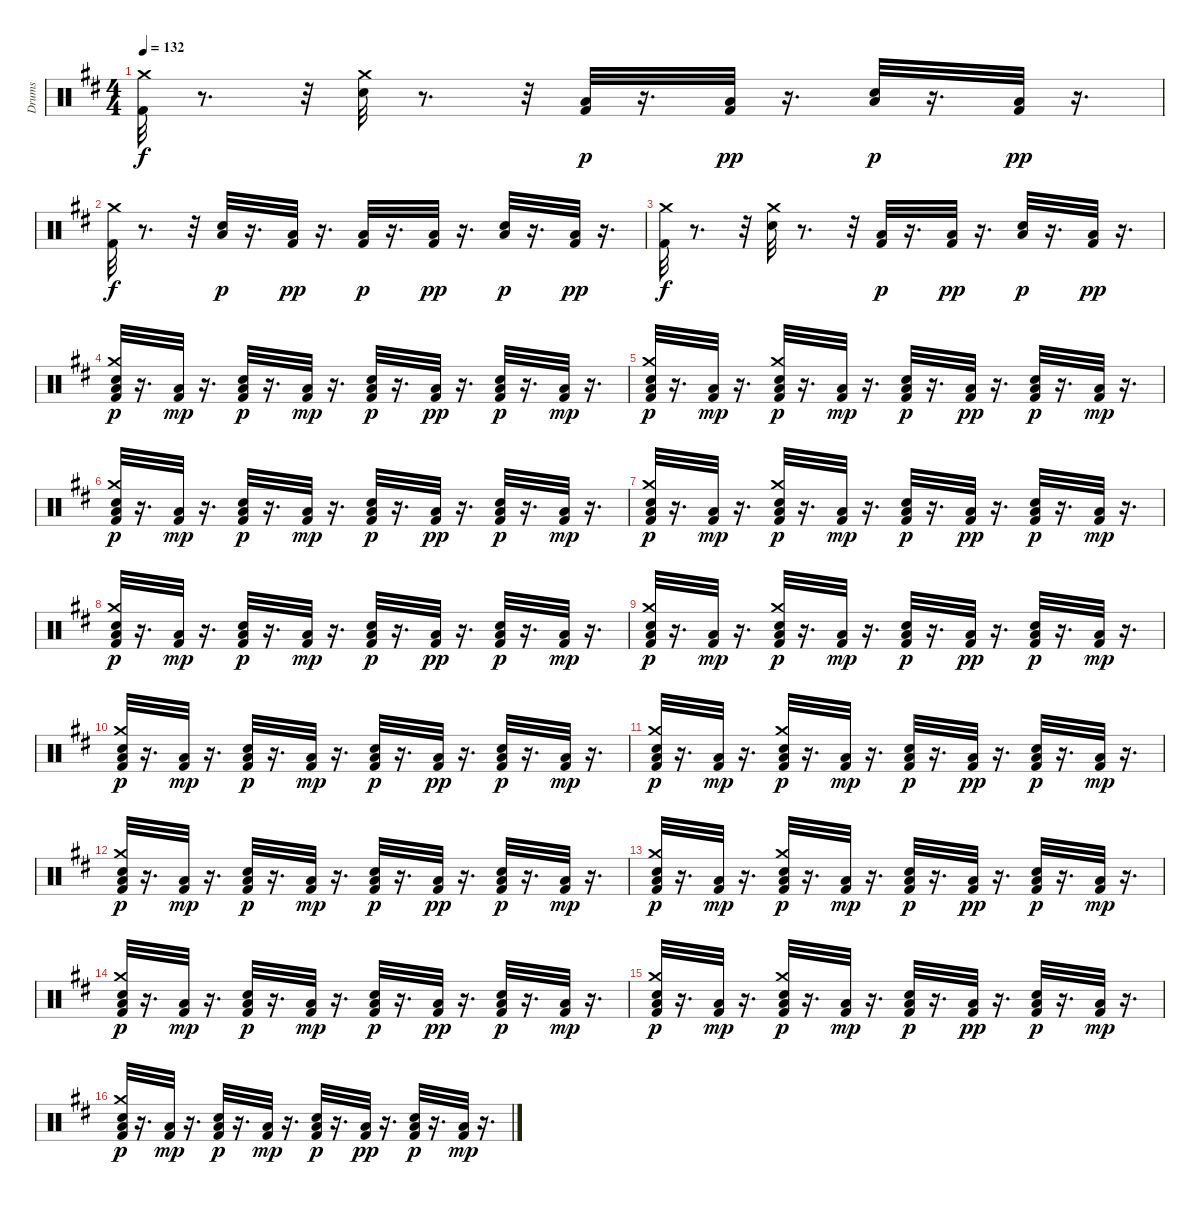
\track ("Drums" "Drums") {instrument percussion}
\staff {score}
\articulation defaults
\ts (4 4)
\tempo 132
\clef neutral
\ks d
("Kick (hit) 2" "Crash medium (hit)").32{dy f} r.8{d} r.32 ("Electric Snare (hit)" "Crash medium (hit)").32 r.8{d} r.32 ("Low Floor Tom (hit)" "Kick (hit) 2").32{dy p} r.16{d} ("Kick (hit) 2" "Low Floor Tom (hit)").32{dy pp} r.16{d} ("Low Floor Tom (hit)" "Electric Snare (hit)").32{dy p} r.16{d} ("Kick (hit) 2" "Low Floor Tom (hit)").32{dy pp} r.16{d} |
("Kick (hit) 2" "Crash medium (hit)").32{dy f} r.8{d} r.32 ("Low Floor Tom (hit)" "Electric Snare (hit)").32{dy p} r.16{d} ("Kick (hit) 2" "Low Floor Tom (hit)").32{dy pp} r.16{d} ("Kick (hit) 2" "Low Floor Tom (hit)").32{dy p} r.16{d} ("Kick (hit) 2" "Low Floor Tom (hit)").32{dy pp} r.16{d} ("Low Floor Tom (hit)" "Electric Snare (hit)").32{dy p} r.16{d} ("Kick (hit) 2" "Low Floor Tom (hit)").32{dy pp} r.16{d} |
("Kick (hit) 2" "Crash medium (hit)").32{dy f} r.8{d} r.32 ("Electric Snare (hit)" "Crash medium (hit)").32 r.8{d} r.32 ("Low Floor Tom (hit)" "Kick (hit) 2").32{dy p} r.16{d} ("Kick (hit) 2" "Low Floor Tom (hit)").32{dy pp} r.16{d} ("Low Floor Tom (hit)" "Electric Snare (hit)").32{dy p} r.16{d} ("Kick (hit) 2" "Low Floor Tom (hit)").32{dy pp} r.16{d} |
("Electric Snare (hit)" "Crash medium (hit)" "Low Floor Tom (hit)" "Kick (hit) 2").32{dy p} r.16{d} ("Low Floor Tom (hit)" "Kick (hit) 2").32{dy mp} r.16{d} ("Kick (hit) 2" "Low Floor Tom (hit)" "Electric Snare (hit)").32{dy p} r.16{d} ("Low Floor Tom (hit)" "Kick (hit) 2").32{dy mp} r.16{d} ("Electric Snare (hit)" "Kick (hit) 2" "Low Floor Tom (hit)").32{dy p} r.16{d} ("Kick (hit) 2" "Low Floor Tom (hit)").32{dy pp} r.16{d} ("Kick (hit) 2" "Low Floor Tom (hit)" "Electric Snare (hit)").32{dy p} r.16{d} ("Low Floor Tom (hit)" "Kick (hit) 2").32{dy mp} r.16{d} |
("Electric Snare (hit)" "Crash medium (hit)" "Low Floor Tom (hit)" "Kick (hit) 2").32{dy p} r.16{d} ("Low Floor Tom (hit)" "Kick (hit) 2").32{dy mp} r.16{d} ("Kick (hit) 2" "Crash medium (hit)" "Low Floor Tom (hit)" "Electric Snare (hit)").32{dy p} r.16{d} ("Low Floor Tom (hit)" "Kick (hit) 2").32{dy mp} r.16{d} ("Electric Snare (hit)" "Kick (hit) 2" "Low Floor Tom (hit)").32{dy p} r.16{d} ("Kick (hit) 2" "Low Floor Tom (hit)").32{dy pp} r.16{d} ("Kick (hit) 2" "Low Floor Tom (hit)" "Electric Snare (hit)").32{dy p} r.16{d} ("Low Floor Tom (hit)" "Kick (hit) 2").32{dy mp} r.16{d} |
("Electric Snare (hit)" "Crash medium (hit)" "Low Floor Tom (hit)" "Kick (hit) 2").32{dy p} r.16{d} ("Low Floor Tom (hit)" "Kick (hit) 2").32{dy mp} r.16{d} ("Kick (hit) 2" "Low Floor Tom (hit)" "Electric Snare (hit)").32{dy p} r.16{d} ("Low Floor Tom (hit)" "Kick (hit) 2").32{dy mp} r.16{d} ("Electric Snare (hit)" "Kick (hit) 2" "Low Floor Tom (hit)").32{dy p} r.16{d} ("Kick (hit) 2" "Low Floor Tom (hit)").32{dy pp} r.16{d} ("Kick (hit) 2" "Low Floor Tom (hit)" "Electric Snare (hit)").32{dy p} r.16{d} ("Low Floor Tom (hit)" "Kick (hit) 2").32{dy mp} r.16{d} |
("Electric Snare (hit)" "Crash medium (hit)" "Low Floor Tom (hit)" "Kick (hit) 2").32{dy p} r.16{d} ("Low Floor Tom (hit)" "Kick (hit) 2").32{dy mp} r.16{d} ("Kick (hit) 2" "Crash medium (hit)" "Low Floor Tom (hit)" "Electric Snare (hit)").32{dy p} r.16{d} ("Low Floor Tom (hit)" "Kick (hit) 2").32{dy mp} r.16{d} ("Electric Snare (hit)" "Kick (hit) 2" "Low Floor Tom (hit)").32{dy p} r.16{d} ("Kick (hit) 2" "Low Floor Tom (hit)").32{dy pp} r.16{d} ("Kick (hit) 2" "Low Floor Tom (hit)" "Electric Snare (hit)").32{dy p} r.16{d} ("Low Floor Tom (hit)" "Kick (hit) 2").32{dy mp} r.16{d} |
("Electric Snare (hit)" "Crash medium (hit)" "Low Floor Tom (hit)" "Kick (hit) 2").32{dy p} r.16{d} ("Low Floor Tom (hit)" "Kick (hit) 2").32{dy mp} r.16{d} ("Kick (hit) 2" "Low Floor Tom (hit)" "Electric Snare (hit)").32{dy p} r.16{d} ("Low Floor Tom (hit)" "Kick (hit) 2").32{dy mp} r.16{d} ("Electric Snare (hit)" "Kick (hit) 2" "Low Floor Tom (hit)").32{dy p} r.16{d} ("Kick (hit) 2" "Low Floor Tom (hit)").32{dy pp} r.16{d} ("Kick (hit) 2" "Low Floor Tom (hit)" "Electric Snare (hit)").32{dy p} r.16{d} ("Low Floor Tom (hit)" "Kick (hit) 2").32{dy mp} r.16{d} |
("Electric Snare (hit)" "Crash medium (hit)" "Low Floor Tom (hit)" "Kick (hit) 2").32{dy p} r.16{d} ("Low Floor Tom (hit)" "Kick (hit) 2").32{dy mp} r.16{d} ("Kick (hit) 2" "Crash medium (hit)" "Low Floor Tom (hit)" "Electric Snare (hit)").32{dy p} r.16{d} ("Low Floor Tom (hit)" "Kick (hit) 2").32{dy mp} r.16{d} ("Electric Snare (hit)" "Kick (hit) 2" "Low Floor Tom (hit)").32{dy p} r.16{d} ("Kick (hit) 2" "Low Floor Tom (hit)").32{dy pp} r.16{d} ("Kick (hit) 2" "Low Floor Tom (hit)" "Electric Snare (hit)").32{dy p} r.16{d} ("Low Floor Tom (hit)" "Kick (hit) 2").32{dy mp} r.16{d} |
("Electric Snare (hit)" "Crash medium (hit)" "Low Floor Tom (hit)" "Kick (hit) 2").32{dy p} r.16{d} ("Low Floor Tom (hit)" "Kick (hit) 2").32{dy mp} r.16{d} ("Kick (hit) 2" "Low Floor Tom (hit)" "Electric Snare (hit)").32{dy p} r.16{d} ("Low Floor Tom (hit)" "Kick (hit) 2").32{dy mp} r.16{d} ("Electric Snare (hit)" "Kick (hit) 2" "Low Floor Tom (hit)").32{dy p} r.16{d} ("Kick (hit) 2" "Low Floor Tom (hit)").32{dy pp} r.16{d} ("Kick (hit) 2" "Low Floor Tom (hit)" "Electric Snare (hit)").32{dy p} r.16{d} ("Low Floor Tom (hit)" "Kick (hit) 2").32{dy mp} r.16{d} |
("Electric Snare (hit)" "Crash medium (hit)" "Low Floor Tom (hit)" "Kick (hit) 2").32{dy p} r.16{d} ("Low Floor Tom (hit)" "Kick (hit) 2").32{dy mp} r.16{d} ("Kick (hit) 2" "Crash medium (hit)" "Low Floor Tom (hit)" "Electric Snare (hit)").32{dy p} r.16{d} ("Low Floor Tom (hit)" "Kick (hit) 2").32{dy mp} r.16{d} ("Electric Snare (hit)" "Kick (hit) 2" "Low Floor Tom (hit)").32{dy p} r.16{d} ("Kick (hit) 2" "Low Floor Tom (hit)").32{dy pp} r.16{d} ("Kick (hit) 2" "Low Floor Tom (hit)" "Electric Snare (hit)").32{dy p} r.16{d} ("Low Floor Tom (hit)" "Kick (hit) 2").32{dy mp} r.16{d} |
("Electric Snare (hit)" "Crash medium (hit)" "Low Floor Tom (hit)" "Kick (hit) 2").32{dy p} r.16{d} ("Low Floor Tom (hit)" "Kick (hit) 2").32{dy mp} r.16{d} ("Kick (hit) 2" "Low Floor Tom (hit)" "Electric Snare (hit)").32{dy p} r.16{d} ("Low Floor Tom (hit)" "Kick (hit) 2").32{dy mp} r.16{d} ("Electric Snare (hit)" "Kick (hit) 2" "Low Floor Tom (hit)").32{dy p} r.16{d} ("Kick (hit) 2" "Low Floor Tom (hit)").32{dy pp} r.16{d} ("Kick (hit) 2" "Low Floor Tom (hit)" "Electric Snare (hit)").32{dy p} r.16{d} ("Low Floor Tom (hit)" "Kick (hit) 2").32{dy mp} r.16{d} |
("Electric Snare (hit)" "Crash medium (hit)" "Low Floor Tom (hit)" "Kick (hit) 2").32{dy p} r.16{d} ("Low Floor Tom (hit)" "Kick (hit) 2").32{dy mp} r.16{d} ("Kick (hit) 2" "Crash medium (hit)" "Low Floor Tom (hit)" "Electric Snare (hit)").32{dy p} r.16{d} ("Low Floor Tom (hit)" "Kick (hit) 2").32{dy mp} r.16{d} ("Electric Snare (hit)" "Kick (hit) 2" "Low Floor Tom (hit)").32{dy p} r.16{d} ("Kick (hit) 2" "Low Floor Tom (hit)").32{dy pp} r.16{d} ("Kick (hit) 2" "Low Floor Tom (hit)" "Electric Snare (hit)").32{dy p} r.16{d} ("Low Floor Tom (hit)" "Kick (hit) 2").32{dy mp} r.16{d} |
("Electric Snare (hit)" "Crash medium (hit)" "Low Floor Tom (hit)" "Kick (hit) 2").32{dy p} r.16{d} ("Low Floor Tom (hit)" "Kick (hit) 2").32{dy mp} r.16{d} ("Kick (hit) 2" "Low Floor Tom (hit)" "Electric Snare (hit)").32{dy p} r.16{d} ("Low Floor Tom (hit)" "Kick (hit) 2").32{dy mp} r.16{d} ("Electric Snare (hit)" "Kick (hit) 2" "Low Floor Tom (hit)").32{dy p} r.16{d} ("Kick (hit) 2" "Low Floor Tom (hit)").32{dy pp} r.16{d} ("Kick (hit) 2" "Low Floor Tom (hit)" "Electric Snare (hit)").32{dy p} r.16{d} ("Low Floor Tom (hit)" "Kick (hit) 2").32{dy mp} r.16{d} |
("Electric Snare (hit)" "Crash medium (hit)" "Low Floor Tom (hit)" "Kick (hit) 2").32{dy p} r.16{d} ("Low Floor Tom (hit)" "Kick (hit) 2").32{dy mp} r.16{d} ("Kick (hit) 2" "Crash medium (hit)" "Low Floor Tom (hit)" "Electric Snare (hit)").32{dy p} r.16{d} ("Low Floor Tom (hit)" "Kick (hit) 2").32{dy mp} r.16{d} ("Electric Snare (hit)" "Kick (hit) 2" "Low Floor Tom (hit)").32{dy p} r.16{d} ("Kick (hit) 2" "Low Floor Tom (hit)").32{dy pp} r.16{d} ("Kick (hit) 2" "Low Floor Tom (hit)" "Electric Snare (hit)").32{dy p} r.16{d} ("Low Floor Tom (hit)" "Kick (hit) 2").32{dy mp} r.16{d} |
("Electric Snare (hit)" "Crash medium (hit)" "Low Floor Tom (hit)" "Kick (hit) 2").32{dy p} r.16{d} ("Low Floor Tom (hit)" "Kick (hit) 2").32{dy mp} r.16{d} ("Kick (hit) 2" "Low Floor Tom (hit)" "Electric Snare (hit)").32{dy p} r.16{d} ("Low Floor Tom (hit)" "Kick (hit) 2").32{dy mp} r.16{d} ("Electric Snare (hit)" "Kick (hit) 2" "Low Floor Tom (hit)").32{dy p} r.16{d} ("Kick (hit) 2" "Low Floor Tom (hit)").32{dy pp} r.16{d} ("Kick (hit) 2" "Low Floor Tom (hit)" "Electric Snare (hit)").32{dy p} r.16{d} ("Low Floor Tom (hit)" "Kick (hit) 2").32{dy mp} r.16{d}
